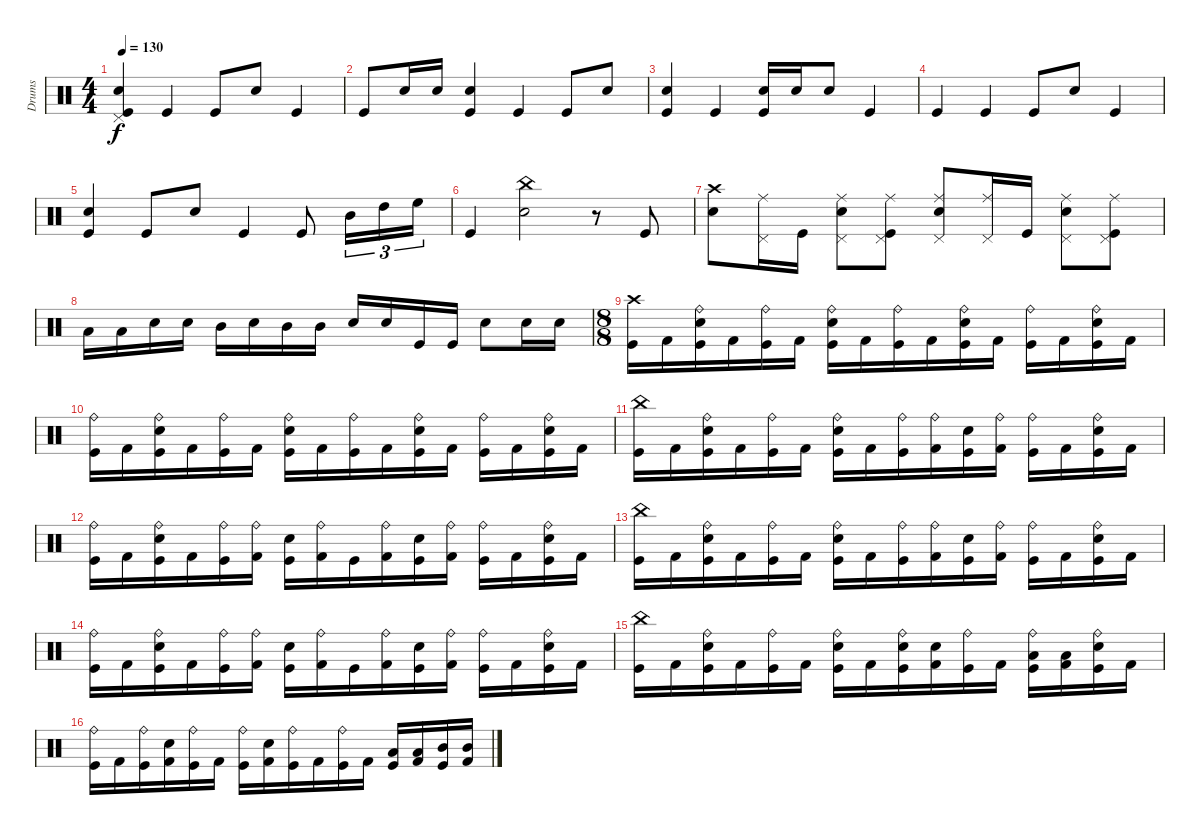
\track ("Drums" "Drums") {instrument percussion}
\staff {score}
\articulation defaults
\ts (4 4)
\tempo 130
\clef neutral
\ks c
("Snare (hit) 2" "Kick (hit)" "Pedal Hi-Hat (hit)").4{dy f} "Kick (hit)".4 "Kick (hit)".8 "Snare (hit) 2".8 "Kick (hit)".4 |
"Kick (hit)".8 "Snare (hit) 2".16 "Snare (hit) 2".16 ("Snare (hit) 2" "Kick (hit)").4 "Kick (hit)".4 "Kick (hit)".8 "Snare (hit) 2".8 |
("Snare (hit) 2" "Kick (hit)").4 "Kick (hit)".4 ("Snare (hit) 2" "Kick (hit)").16 "Snare (hit) 2".16 "Snare (hit) 2".8 "Kick (hit)".4 |
"Kick (hit)".4 "Kick (hit)".4 "Kick (hit)".8 "Snare (hit) 2".8 "Kick (hit)".4 |
("Snare (hit) 2" "Kick (hit)").4 "Kick (hit)".8 "Snare (hit) 2".8 "Kick (hit)".4 "Kick (hit)".8 "Mid Tom (hit)".16{tu (3 2)} "High Tom (hit)".16{tu (3 2)} "High Floor Tom (hit)".16{tu (3 2)} |
"Kick (hit)".4 ("Snare (hit) 2" "China (hit)").2 r.8 "Kick (hit)".8 |
("Snare (hit) 2" "Crash high (hit)").8 ("Pedal Hi-Hat (hit)" "Ride (middle)").16 "Kick (hit)".16 ("Pedal Hi-Hat (hit)" "Ride (middle)" "Snare (hit) 2").8 ("Pedal Hi-Hat (hit)" "Ride (middle)" "Kick (hit)").8 ("Pedal Hi-Hat (hit)" "Ride (middle)" "Snare (hit) 2").8 ("Pedal Hi-Hat (hit)" "Ride (middle)").16 "Kick (hit)".16 ("Pedal Hi-Hat (hit)" "Ride (middle)" "Snare (hit) 2").8 ("Pedal Hi-Hat (hit)" "Ride (middle)" "Kick (hit)").8 |
"Low Tom (hit)".16 "Low Tom (hit)".16 "Electric Snare (hit)".16 "Electric Snare (hit)".16 "Mid Tom (hit)".16 "Electric Snare (hit)".16 "Mid Tom (hit)".16 "Mid Tom (hit)".16 "Electric Snare (hit)".16 "Electric Snare (hit)".16 "Kick (hit)".16 "Kick (hit)".16 "Electric Snare (hit)".8 "Snare (hit) 2".16 "Snare (hit) 2".16 |
\ts (8 8)
("Crash high (hit)" "Kick (hit)").16 "Kick (hit) 2".16 ("Ride (bell)" "Electric Snare (hit)" "Kick (hit)").16 "Kick (hit) 2".16 ("Ride (bell)" "Kick (hit)").16 "Kick (hit) 2".16 ("Ride (bell)" "Electric Snare (hit)" "Kick (hit)").16 "Kick (hit) 2".16 ("Ride (bell)" "Kick (hit)").16 "Kick (hit) 2".16 ("Ride (bell)" "Electric Snare (hit)" "Kick (hit)").16 "Kick (hit) 2".16 ("Ride (bell)" "Kick (hit)").16 "Kick (hit) 2".16 ("Ride (bell)" "Electric Snare (hit)" "Kick (hit)").16 "Kick (hit) 2".16 |
("Ride (bell)" "Kick (hit)").16 "Kick (hit) 2".16 ("Ride (bell)" "Electric Snare (hit)" "Kick (hit)").16 "Kick (hit) 2".16 ("Ride (bell)" "Kick (hit)").16 "Kick (hit) 2".16 ("Ride (bell)" "Electric Snare (hit)" "Kick (hit)").16 "Kick (hit) 2".16 ("Ride (bell)" "Kick (hit)").16 "Kick (hit) 2".16 ("Ride (bell)" "Electric Snare (hit)" "Kick (hit)").16 "Kick (hit) 2".16 ("Ride (bell)" "Kick (hit)").16 "Kick (hit) 2".16 ("Ride (bell)" "Electric Snare (hit)" "Kick (hit)").16 "Kick (hit) 2".16 |
("China (hit)" "Kick (hit)").16 "Kick (hit) 2".16 ("Ride (bell)" "Electric Snare (hit)" "Kick (hit)").16 "Kick (hit) 2".16 ("Ride (bell)" "Kick (hit)").16 "Kick (hit) 2".16 ("Ride (bell)" "Electric Snare (hit)" "Kick (hit)").16 "Kick (hit) 2".16 ("Ride (bell)" "Kick (hit)").16 ("Ride (bell)" "Kick (hit) 2").16 ("Electric Snare (hit)" "Kick (hit)").16 ("Ride (bell)" "Kick (hit) 2").16 ("Ride (bell)" "Kick (hit)").16 "Kick (hit) 2".16 ("Ride (bell)" "Electric Snare (hit)" "Kick (hit)").16 "Kick (hit) 2".16 |
("Ride (bell)" "Kick (hit)").16 "Kick (hit) 2".16 ("Ride (bell)" "Electric Snare (hit)" "Kick (hit)").16 "Kick (hit) 2".16 ("Ride (bell)" "Kick (hit)").16 ("Ride (bell)" "Kick (hit) 2").16 ("Electric Snare (hit)" "Kick (hit)").16 ("Ride (bell)" "Kick (hit) 2").16 "Kick (hit)".16 ("Ride (bell)" "Kick (hit) 2").16 ("Electric Snare (hit)" "Kick (hit)").16 ("Ride (bell)" "Kick (hit) 2").16 ("Ride (bell)" "Kick (hit)").16 "Kick (hit) 2".16 ("Ride (bell)" "Electric Snare (hit)" "Kick (hit)").16 "Kick (hit) 2".16 |
("China (hit)" "Kick (hit)").16 "Kick (hit) 2".16 ("Ride (bell)" "Electric Snare (hit)" "Kick (hit)").16 "Kick (hit) 2".16 ("Ride (bell)" "Kick (hit)").16 "Kick (hit) 2".16 ("Ride (bell)" "Electric Snare (hit)" "Kick (hit)").16 "Kick (hit) 2".16 ("Ride (bell)" "Kick (hit)").16 ("Ride (bell)" "Kick (hit) 2").16 ("Electric Snare (hit)" "Kick (hit)").16 ("Ride (bell)" "Kick (hit) 2").16 ("Ride (bell)" "Kick (hit)").16 "Kick (hit) 2".16 ("Ride (bell)" "Electric Snare (hit)" "Kick (hit)").16 "Kick (hit) 2".16 |
("Ride (bell)" "Kick (hit)").16 "Kick (hit) 2".16 ("Ride (bell)" "Electric Snare (hit)" "Kick (hit)").16 "Kick (hit) 2".16 ("Ride (bell)" "Kick (hit)").16 ("Ride (bell)" "Kick (hit) 2").16 ("Electric Snare (hit)" "Kick (hit)").16 ("Ride (bell)" "Kick (hit) 2").16 "Kick (hit)".16 ("Ride (bell)" "Kick (hit) 2").16 ("Electric Snare (hit)" "Kick (hit)").16 ("Ride (bell)" "Kick (hit) 2").16 ("Ride (bell)" "Kick (hit)").16 "Kick (hit) 2".16 ("Ride (bell)" "Electric Snare (hit)" "Kick (hit)").16 "Kick (hit) 2".16 |
("China (hit)" "Kick (hit)").16 "Kick (hit) 2".16 ("Ride (bell)" "Electric Snare (hit)" "Kick (hit)").16 "Kick (hit) 2".16 ("Ride (bell)" "Kick (hit)").16 "Kick (hit) 2".16 ("Ride (bell)" "Electric Snare (hit)" "Kick (hit)").16 "Kick (hit) 2".16 ("Ride (bell)" "Electric Snare (hit)" "Kick (hit)").16 ("Electric Snare (hit)" "Kick (hit) 2").16 ("Ride (bell)" "Kick (hit)").16 "Kick (hit) 2".16 ("Ride (bell)" "Low Tom (hit)" "Kick (hit)").16 ("Low Tom (hit)" "Kick (hit) 2").16 ("Ride (bell)" "Electric Snare (hit)" "Kick (hit)").16 "Kick (hit) 2".16 |
("Ride (bell)" "Kick (hit)").16 "Kick (hit) 2".16 ("Ride (bell)" "Kick (hit)").16 ("Electric Snare (hit)" "Kick (hit) 2").16 ("Ride (bell)" "Kick (hit)").16 "Kick (hit) 2".16 ("Ride (bell)" "Kick (hit)").16 ("Electric Snare (hit)" "Kick (hit) 2").16 ("Ride (bell)" "Kick (hit)").16 "Kick (hit) 2".16 ("Ride (bell)" "Kick (hit)").16 "Kick (hit) 2".16 ("Low Tom (hit)" "Kick (hit)").16 ("Low Tom (hit)" "Kick (hit) 2").16 ("Mid Tom (hit)" "Kick (hit)").16 ("Mid Tom (hit)" "Kick (hit) 2").16
